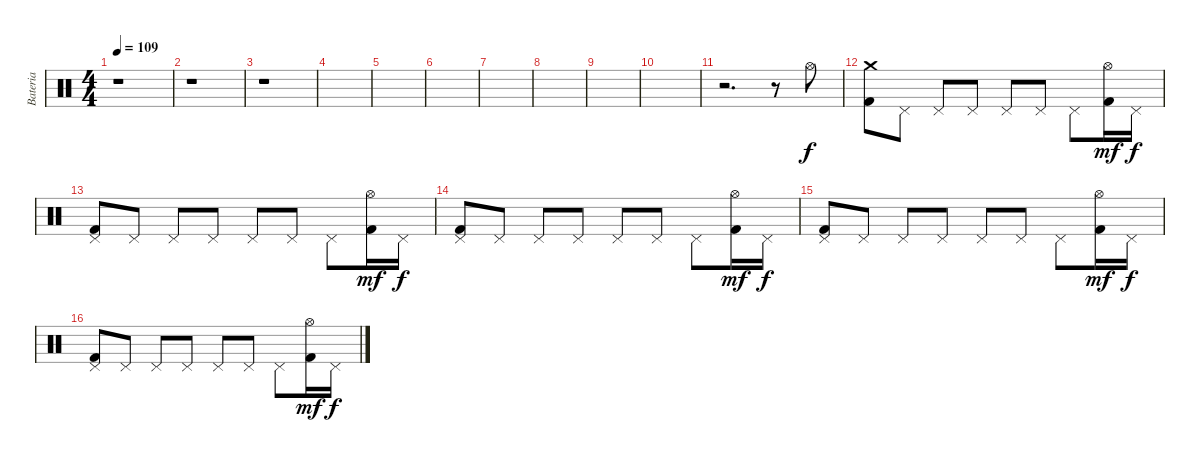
\track ("Bateria" "Bateria") {instrument percussion}
\staff {score}
\articulation defaults
\ts (4 4)
\tempo 109
\clef neutral
\ks c
r.1{dy f} |
r.1 |
r.1 |
|
|
|
|
|
|
|
r.2{d} r.8 "Hi-Hat (open)".8 |
("Crash medium (hit)" "Kick (hit) 2").8 "Pedal Hi-Hat (hit)".8 "Pedal Hi-Hat (hit)".8 "Pedal Hi-Hat (hit)".8 "Pedal Hi-Hat (hit)".8 "Pedal Hi-Hat (hit)".8 "Pedal Hi-Hat (hit)".8 ("Hi-Hat (open)" "Kick (hit) 2").16{dy mf} "Pedal Hi-Hat (hit)".16{dy f} |
("Pedal Hi-Hat (hit)" "Kick (hit) 2").8 "Pedal Hi-Hat (hit)".8 "Pedal Hi-Hat (hit)".8 "Pedal Hi-Hat (hit)".8 "Pedal Hi-Hat (hit)".8 "Pedal Hi-Hat (hit)".8 "Pedal Hi-Hat (hit)".8 ("Hi-Hat (open)" "Kick (hit) 2").16{dy mf} "Pedal Hi-Hat (hit)".16{dy f} |
("Pedal Hi-Hat (hit)" "Kick (hit) 2").8 "Pedal Hi-Hat (hit)".8 "Pedal Hi-Hat (hit)".8 "Pedal Hi-Hat (hit)".8 "Pedal Hi-Hat (hit)".8 "Pedal Hi-Hat (hit)".8 "Pedal Hi-Hat (hit)".8 ("Hi-Hat (open)" "Kick (hit) 2").16{dy mf} "Pedal Hi-Hat (hit)".16{dy f} |
("Pedal Hi-Hat (hit)" "Kick (hit) 2").8 "Pedal Hi-Hat (hit)".8 "Pedal Hi-Hat (hit)".8 "Pedal Hi-Hat (hit)".8 "Pedal Hi-Hat (hit)".8 "Pedal Hi-Hat (hit)".8 "Pedal Hi-Hat (hit)".8 ("Hi-Hat (open)" "Kick (hit) 2").16{dy mf} "Pedal Hi-Hat (hit)".16{dy f} |
("Pedal Hi-Hat (hit)" "Kick (hit) 2").8 "Pedal Hi-Hat (hit)".8 "Pedal Hi-Hat (hit)".8 "Pedal Hi-Hat (hit)".8 "Pedal Hi-Hat (hit)".8 "Pedal Hi-Hat (hit)".8 "Pedal Hi-Hat (hit)".8 ("Hi-Hat (open)" "Kick (hit) 2").16{dy mf} "Pedal Hi-Hat (hit)".16{dy f}
